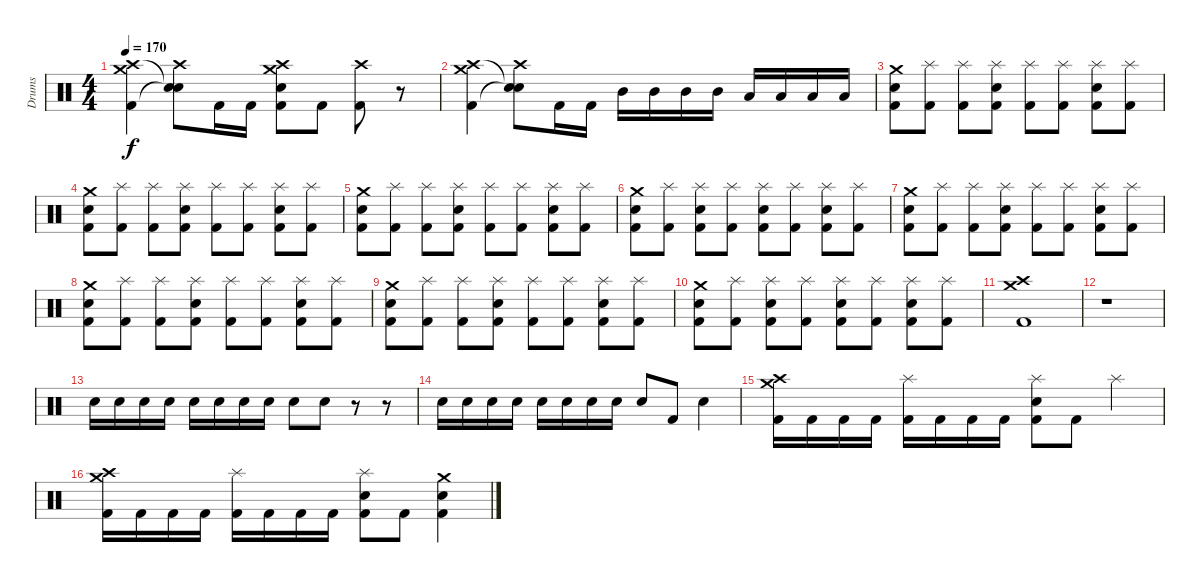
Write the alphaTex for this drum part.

\track ("Drums" "Drums") {instrument percussion}
\staff {score}
\articulation defaults
\ts (4 4)
\tempo 170
\clef neutral
\ks c
("Crash medium (hit)" "Crash high (hit)" "Kick (hit) 2").4{dy f} ("Crash high (hit)" "Snare (hit)"{t} "Snare (hit)"{t}).8 "Kick (hit) 2".16 "Kick (hit) 2".16 ("Crash high (hit)" "Snare (hit) 2" "Crash medium (hit)" "Kick (hit) 2").8 "Kick (hit) 2".8 ("Crash high (hit)" "Kick (hit) 2").8 r.8 |
("Crash medium (hit)" "Crash high (hit)" "Kick (hit) 2").4 ("Crash high (hit)" "Snare (hit)"{t} "Snare (hit)"{t}).8 "Kick (hit) 2".16 "Kick (hit) 2".16 "Mid Tom (hit)".16 "Mid Tom (hit)".16 "Mid Tom (hit)".16 "Mid Tom (hit)".16 "Low Tom (hit)".16 "Low Tom (hit)".16 "Low Tom (hit)".16 "Low Tom (hit)".16 |
("Crash medium (hit)" "Snare (hit) 2" "Kick (hit) 2").8 ("Splash (hit)" "Kick (hit) 2").8 ("Splash (hit)" "Kick (hit) 2").8 ("Splash (hit)" "Snare (hit) 2" "Kick (hit) 2").8 ("Splash (hit)" "Kick (hit) 2").8 ("Splash (hit)" "Kick (hit) 2").8 ("Splash (hit)" "Snare (hit) 2" "Kick (hit) 2").8 ("Splash (hit)" "Kick (hit) 2").8 |
("Crash medium (hit)" "Snare (hit) 2" "Kick (hit) 2").8 ("Splash (hit)" "Kick (hit) 2").8 ("Splash (hit)" "Kick (hit) 2").8 ("Splash (hit)" "Snare (hit) 2" "Kick (hit) 2").8 ("Splash (hit)" "Kick (hit) 2").8 ("Splash (hit)" "Kick (hit) 2").8 ("Splash (hit)" "Snare (hit) 2" "Kick (hit) 2").8 ("Splash (hit)" "Kick (hit) 2").8 |
("Crash medium (hit)" "Snare (hit) 2" "Kick (hit) 2").8 ("Splash (hit)" "Kick (hit) 2").8 ("Splash (hit)" "Kick (hit) 2").8 ("Splash (hit)" "Snare (hit) 2" "Kick (hit) 2").8 ("Splash (hit)" "Kick (hit) 2").8 ("Splash (hit)" "Kick (hit) 2").8 ("Splash (hit)" "Snare (hit) 2" "Kick (hit) 2").8 ("Splash (hit)" "Kick (hit) 2").8 |
("Crash medium (hit)" "Snare (hit) 2" "Kick (hit) 2").8 ("Splash (hit)" "Kick (hit) 2").8 ("Splash (hit)" "Snare (hit) 2" "Kick (hit) 2").8 ("Splash (hit)" "Kick (hit) 2").8 ("Splash (hit)" "Snare (hit) 2" "Kick (hit) 2").8 ("Splash (hit)" "Kick (hit) 2").8 ("Splash (hit)" "Snare (hit) 2" "Kick (hit) 2").8 ("Splash (hit)" "Kick (hit) 2").8 |
("Crash medium (hit)" "Snare (hit) 2" "Kick (hit) 2").8 ("Splash (hit)" "Kick (hit) 2").8 ("Splash (hit)" "Kick (hit) 2").8 ("Splash (hit)" "Snare (hit) 2" "Kick (hit) 2").8 ("Splash (hit)" "Kick (hit) 2").8 ("Splash (hit)" "Kick (hit) 2").8 ("Splash (hit)" "Snare (hit) 2" "Kick (hit) 2").8 ("Splash (hit)" "Kick (hit) 2").8 |
("Crash medium (hit)" "Snare (hit) 2" "Kick (hit) 2").8 ("Splash (hit)" "Kick (hit) 2").8 ("Splash (hit)" "Kick (hit) 2").8 ("Splash (hit)" "Snare (hit) 2" "Kick (hit) 2").8 ("Splash (hit)" "Kick (hit) 2").8 ("Splash (hit)" "Kick (hit) 2").8 ("Splash (hit)" "Snare (hit) 2" "Kick (hit) 2").8 ("Splash (hit)" "Kick (hit) 2").8 |
("Crash medium (hit)" "Snare (hit) 2" "Kick (hit) 2").8 ("Splash (hit)" "Kick (hit) 2").8 ("Splash (hit)" "Kick (hit) 2").8 ("Splash (hit)" "Snare (hit) 2" "Kick (hit) 2").8 ("Splash (hit)" "Kick (hit) 2").8 ("Splash (hit)" "Kick (hit) 2").8 ("Splash (hit)" "Snare (hit) 2" "Kick (hit) 2").8 ("Splash (hit)" "Kick (hit) 2").8 |
("Crash medium (hit)" "Snare (hit) 2" "Kick (hit) 2").8 ("Splash (hit)" "Kick (hit) 2").8 ("Splash (hit)" "Snare (hit) 2" "Kick (hit) 2").8 ("Splash (hit)" "Kick (hit) 2").8 ("Splash (hit)" "Snare (hit) 2" "Kick (hit) 2").8 ("Splash (hit)" "Kick (hit) 2").8 ("Splash (hit)" "Snare (hit) 2" "Kick (hit) 2").8 ("Splash (hit)" "Kick (hit) 2").8 |
("Crash high (hit)" "Crash medium (hit)" "Kick (hit) 2").1 |
r.1 |
"Snare (hit) 2".16 "Snare (hit) 2".16 "Snare (hit) 2".16 "Snare (hit) 2".16 "Snare (hit) 2".16 "Snare (hit) 2".16 "Snare (hit) 2".16 "Snare (hit) 2".16 "Snare (hit) 2".8 "Snare (hit) 2".8 r.8 r.8 |
"Snare (hit) 2".16 "Snare (hit) 2".16 "Snare (hit) 2".16 "Snare (hit) 2".16 "Snare (hit) 2".16 "Snare (hit) 2".16 "Snare (hit) 2".16 "Snare (hit) 2".16 "Snare (hit) 2".8 "Kick (hit) 2".8 "Snare (hit) 2".4 |
("Crash medium (hit)" "Crash high (hit)" "Kick (hit) 2").16 "Kick (hit) 2".16 "Kick (hit) 2".16 "Kick (hit) 2".16 ("Splash (hit)" "Kick (hit) 2").16 "Kick (hit) 2".16 "Kick (hit) 2".16 "Kick (hit) 2".16 ("Splash (hit)" "Snare (hit) 2" "Kick (hit) 2").8 "Kick (hit) 2".8 "Splash (hit)".4 |
("Crash medium (hit)" "Crash high (hit)" "Kick (hit) 2").16 "Kick (hit) 2".16 "Kick (hit) 2".16 "Kick (hit) 2".16 ("Splash (hit)" "Kick (hit) 2").16 "Kick (hit) 2".16 "Kick (hit) 2".16 "Kick (hit) 2".16 ("Splash (hit)" "Snare (hit) 2" "Kick (hit) 2").8 "Kick (hit) 2".8 ("Crash medium (hit)" "Snare (hit) 2" "Kick (hit) 2").4
